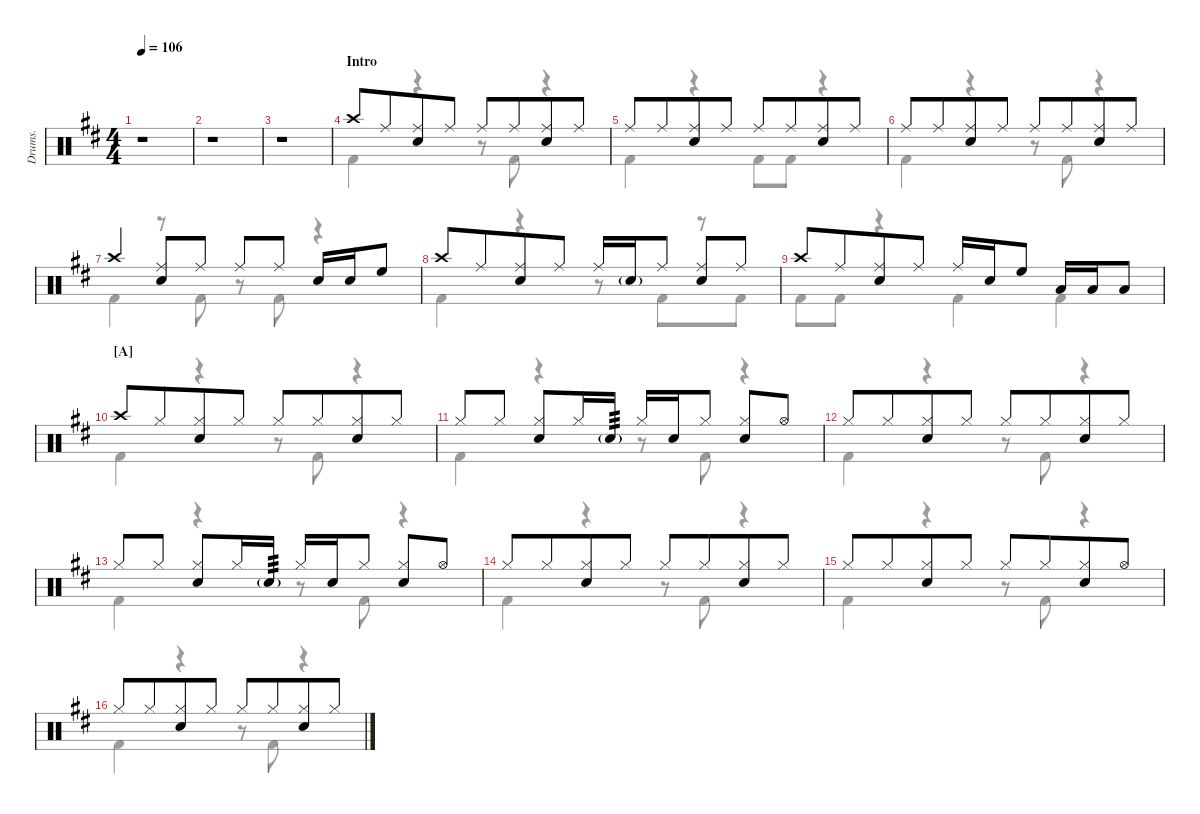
\defaultSystemsLayout 4
\hideDynamics
\track ("Drumkit" "Drums.") {defaultSystemsLayout 4 instrument percussion}
\staff {score}
\articulation defaults
\voice
\ts (4 4)
\tempo 106
\clef neutral
\ks d
r.1{dy mf} |
r.1 |
r.1 |
\section ("" "Intro")
"Crash high (hit)"{acc forcenatural}.8 "Ride (middle)"{acc forcenatural}.8{beam merge} ("Ride (middle)"{acc forcenatural} "Snare (hit) 2"{acc forcenatural}).8{beam merge} "Ride (middle)"{acc forcenatural}.8 "Ride (middle)"{acc forcenatural}.8{beam merge} "Ride (middle)"{acc forcenatural}.8{beam merge} ("Ride (middle)"{acc forcenatural} "Snare (hit) 2"{acc forcenatural}).8 "Ride (middle)"{acc forcenatural}.8{beam merge} |
"Ride (middle)"{acc forcenatural}.8{beam merge} "Ride (middle)"{acc forcenatural}.8{beam merge} ("Ride (middle)"{acc forcenatural} "Snare (hit) 2"{acc forcenatural}).8 "Ride (middle)"{acc forcenatural}.8{beam split} "Ride (middle)"{acc forcenatural}.8{beam merge} "Ride (middle)"{acc forcenatural}.8{beam merge} ("Ride (middle)"{acc forcenatural} "Snare (hit) 2"{acc forcenatural}).8 "Ride (middle)"{acc forcenatural}.8{beam merge} |
"Ride (middle)"{acc forcenatural}.8{beam merge} "Ride (middle)"{acc forcenatural}.8{beam merge} ("Ride (middle)"{acc forcenatural} "Snare (hit) 2"{acc forcenatural}).8 "Ride (middle)"{acc forcenatural}.8{beam split} "Ride (middle)"{acc forcenatural}.8{beam merge} "Ride (middle)"{acc forcenatural}.8{beam merge} ("Ride (middle)"{acc forcenatural} "Snare (hit) 2"{acc forcenatural}).8 "Ride (middle)"{acc forcenatural}.8{beam merge} |
"Crash high (hit)"{acc forcenatural}.4 ("Ride (middle)"{acc forcenatural} "Snare (hit) 2"{acc forcenatural}).8{beam merge} "Ride (middle)"{acc forcenatural}.8 "Ride (middle)"{acc forcenatural}.8{beam merge} "Ride (middle)"{acc forcenatural}.8{beam split} "Snare (hit) 2"{acc forcenatural}.16 "Snare (hit) 2"{acc forcenatural}.16 "High Floor Tom (hit)"{acc forcenatural}.8 |
"Crash high (hit)"{acc forcenatural}.8 "Ride (middle)"{acc forcenatural}.8{beam merge} ("Ride (middle)"{acc forcenatural} "Snare (hit) 2"{acc forcenatural}).8{beam merge} "Ride (middle)"{acc forcenatural}.8 "Ride (middle)"{acc forcenatural}.16 "Snare (hit) 2"{g acc forcenatural}.16 "Ride (middle)"{acc forcenatural}.8 ("Ride (middle)"{acc forcenatural} "Snare (hit) 2"{acc forcenatural}).8 "Ride (middle)"{acc forcenatural}.8 |
"Crash high (hit)"{acc forcenatural}.8 "Ride (middle)"{acc forcenatural}.8{beam merge} ("Ride (middle)"{acc forcenatural} "Snare (hit) 2"{acc forcenatural}).8{beam merge} "Ride (middle)"{acc forcenatural}.8 "Ride (middle)"{acc forcenatural}.16 "Snare (hit) 2"{acc forcenatural}.16 "High Floor Tom (hit)"{acc forcenatural}.8 "Low Tom (hit)"{acc forcenatural}.16 "Low Tom (hit)"{acc forcenatural}.16 "Low Tom (hit)"{acc forcenatural}.8 |
\section ("A" "")
"Crash high (hit)"{acc forcenatural}.8 "Hi-Hat (closed)"{acc forcenatural}.8{beam merge} ("Hi-Hat (closed)"{acc forcenatural} "Snare (hit) 2"{acc forcenatural}).8 "Hi-Hat (closed)"{acc forcenatural}.8 "Hi-Hat (closed)"{acc forcenatural}.8 "Hi-Hat (closed)"{acc forcenatural}.8{beam merge} ("Hi-Hat (closed)"{acc forcenatural} "Snare (hit) 2"{acc forcenatural}).8 "Hi-Hat (closed)"{acc forcenatural}.8 |
"Hi-Hat (closed)"{acc forcenatural}.8 "Hi-Hat (closed)"{acc forcenatural}.8 ("Hi-Hat (closed)"{acc forcenatural} "Snare (hit) 2"{acc forcenatural}).8 "Hi-Hat (closed)"{acc forcenatural}.16 "Snare (hit) 2"{g acc forcenatural}.16{tp 3} "Hi-Hat (closed)"{acc forcenatural}.16 "Snare (hit) 2"{acc forcenatural}.16 "Hi-Hat (closed)"{acc forcenatural}.8{beam split} ("Hi-Hat (closed)"{acc forcenatural} "Snare (hit) 2"{acc forcenatural}).8 "Hi-Hat (open)"{acc forcenatural}.8 |
"Hi-Hat (closed)"{acc forcenatural}.8 "Hi-Hat (closed)"{acc forcenatural}.8{beam merge} ("Hi-Hat (closed)"{acc forcenatural} "Snare (hit) 2"{acc forcenatural}).8 "Hi-Hat (closed)"{acc forcenatural}.8 "Hi-Hat (closed)"{acc forcenatural}.8 "Hi-Hat (closed)"{acc forcenatural}.8{beam merge} ("Hi-Hat (closed)"{acc forcenatural} "Snare (hit) 2"{acc forcenatural}).8 "Hi-Hat (closed)"{acc forcenatural}.8 |
"Hi-Hat (closed)"{acc forcenatural}.8 "Hi-Hat (closed)"{acc forcenatural}.8 ("Hi-Hat (closed)"{acc forcenatural} "Snare (hit) 2"{acc forcenatural}).8 "Hi-Hat (closed)"{acc forcenatural}.16 "Snare (hit) 2"{g acc forcenatural}.16{tp 3} "Hi-Hat (closed)"{acc forcenatural}.16 "Snare (hit) 2"{acc forcenatural}.16 "Hi-Hat (closed)"{acc forcenatural}.8{beam split} ("Hi-Hat (closed)"{acc forcenatural} "Snare (hit) 2"{acc forcenatural}).8 "Hi-Hat (open)"{acc forcenatural}.8 |
"Hi-Hat (closed)"{acc forcenatural}.8 "Hi-Hat (closed)"{acc forcenatural}.8{beam merge} ("Hi-Hat (closed)"{acc forcenatural} "Snare (hit) 2"{acc forcenatural}).8 "Hi-Hat (closed)"{acc forcenatural}.8 "Hi-Hat (closed)"{acc forcenatural}.8 "Hi-Hat (closed)"{acc forcenatural}.8{beam merge} ("Hi-Hat (closed)"{acc forcenatural} "Snare (hit) 2"{acc forcenatural}).8 "Hi-Hat (closed)"{acc forcenatural}.8 |
"Hi-Hat (closed)"{acc forcenatural}.8 "Hi-Hat (closed)"{acc forcenatural}.8{beam merge} ("Hi-Hat (closed)"{acc forcenatural} "Snare (hit) 2"{acc forcenatural}).8 "Hi-Hat (closed)"{acc forcenatural}.8 "Hi-Hat (closed)"{acc forcenatural}.8 "Hi-Hat (closed)"{acc forcenatural}.8{beam merge} ("Hi-Hat (closed)"{acc forcenatural} "Snare (hit) 2"{acc forcenatural}).8 "Hi-Hat (open)"{acc forcenatural}.8 |
"Hi-Hat (closed)"{acc forcenatural}.8 "Hi-Hat (closed)"{acc forcenatural}.8{beam merge} ("Hi-Hat (closed)"{acc forcenatural} "Snare (hit) 2"{acc forcenatural}).8 "Hi-Hat (closed)"{acc forcenatural}.8 "Hi-Hat (closed)"{acc forcenatural}.8 "Hi-Hat (closed)"{acc forcenatural}.8{beam merge} ("Hi-Hat (closed)"{acc forcenatural} "Snare (hit) 2"{acc forcenatural}).8 "Hi-Hat (closed)"{acc forcenatural}.8
\voice
\clef neutral
\ottava regular
\simile none
\ks d
r.1{dy mf} |
r.1 |
r.1 |
"Kick (hit) 2"{acc forcenatural}.4 r.4 r.8 "Kick (hit) 2"{acc forcenatural}.8 r.4 |
"Kick (hit) 2"{acc forcenatural}.4 r.4 "Kick (hit) 2"{acc forcenatural}.8 "Kick (hit) 2"{acc forcenatural}.8 r.4 |
"Kick (hit) 2"{acc forcenatural}.4 r.4 r.8 "Kick (hit) 2"{acc forcenatural}.8 r.4 |
"Kick (hit) 2"{acc forcenatural}.4 r.8 "Kick (hit) 2"{acc forcenatural}.8 r.8 "Kick (hit) 2"{acc forcenatural}.8 r.4 |
"Kick (hit) 2"{acc forcenatural}.4 r.4 r.8 "Kick (hit) 2"{acc forcenatural}.8{beam merge} r.8{beam merge} "Kick (hit) 2"{acc forcenatural}.8 |
"Kick (hit) 2"{acc forcenatural}.8 "Kick (hit) 2"{acc forcenatural}.8 r.4 "Kick (hit) 2"{acc forcenatural}.4 "Kick (hit) 2"{acc forcenatural}.4 |
"Kick (hit) 2"{acc forcenatural}.4 r.4 r.8 "Kick (hit) 2"{acc forcenatural}.8 r.4 |
"Kick (hit) 2"{acc forcenatural}.4 r.4 r.8 "Kick (hit) 2"{acc forcenatural}.8 r.4 |
"Kick (hit) 2"{acc forcenatural}.4 r.4 r.8 "Kick (hit) 2"{acc forcenatural}.8 r.4 |
"Kick (hit) 2"{acc forcenatural}.4 r.4 r.8 "Kick (hit) 2"{acc forcenatural}.8 r.4 |
"Kick (hit) 2"{acc forcenatural}.4 r.4 r.8 "Kick (hit) 2"{acc forcenatural}.8 r.4 |
"Kick (hit) 2"{acc forcenatural}.4 r.4 r.8 "Kick (hit) 2"{acc forcenatural}.8 r.4 |
"Kick (hit) 2"{acc forcenatural}.4 r.4 r.8 "Kick (hit) 2"{acc forcenatural}.8 r.4
